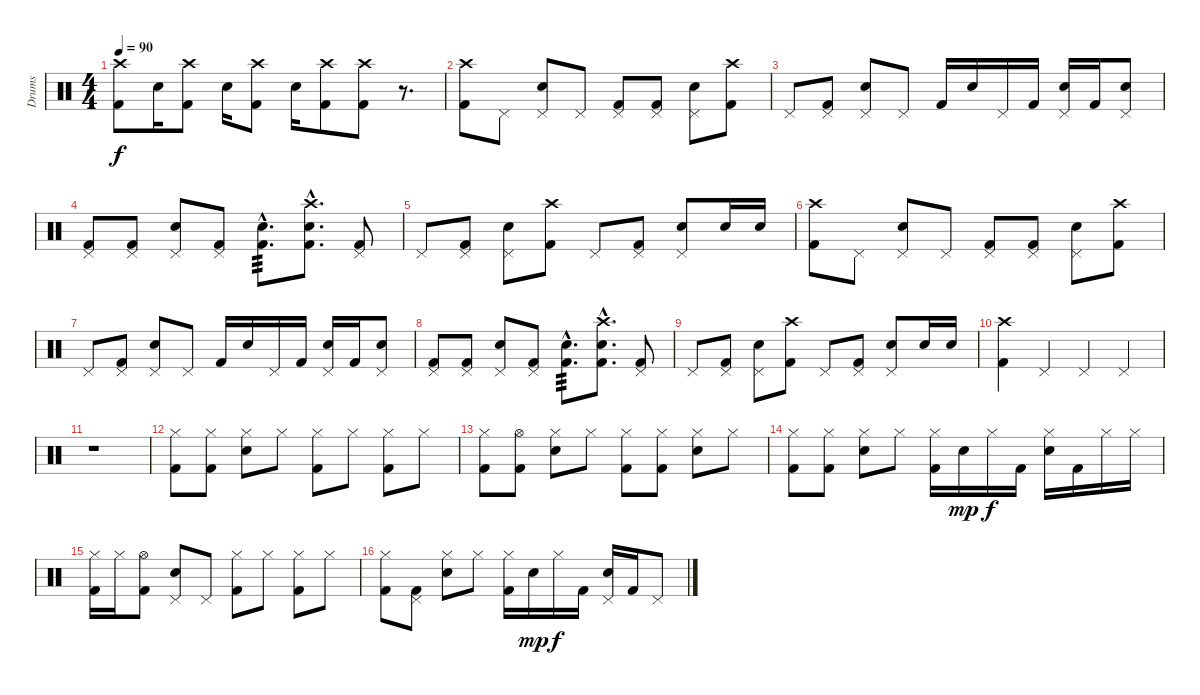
\track ("Drums" "Drums") {instrument percussion}
\staff {score}
\articulation defaults
\ts (4 4)
\tempo 90
\clef neutral
\ks c
("Crash high (hit)" "Kick (hit) 2").8{dy f} "Snare (hit) 2".16 ("Crash high (hit)" "Kick (hit) 2").8 "Snare (hit) 2".16 ("Crash high (hit)" "Kick (hit) 2").8 "Snare (hit) 2".16 ("Crash high (hit)" "Kick (hit) 2").8 ("Crash high (hit)" "Kick (hit) 2").8 r.8{d} |
("Crash high (hit)" "Kick (hit) 2").8 "Pedal Hi-Hat (hit)".8 ("Pedal Hi-Hat (hit)" "Snare (hit) 2").8 "Pedal Hi-Hat (hit)".8 ("Pedal Hi-Hat (hit)" "Kick (hit) 2").8 ("Pedal Hi-Hat (hit)" "Kick (hit) 2").8 ("Pedal Hi-Hat (hit)" "Snare (hit) 2").8 ("Crash high (hit)" "Kick (hit) 2").8 |
"Pedal Hi-Hat (hit)".8 ("Pedal Hi-Hat (hit)" "Kick (hit) 2").8 ("Pedal Hi-Hat (hit)" "Snare (hit) 2").8 "Pedal Hi-Hat (hit)".8 "Kick (hit) 2".16 "Snare (hit) 2".16 "Pedal Hi-Hat (hit)".16 "Kick (hit) 2".16 ("Pedal Hi-Hat (hit)" "Snare (hit) 2").16 "Kick (hit) 2".16 ("Pedal Hi-Hat (hit)" "Snare (hit) 2").8 |
("Pedal Hi-Hat (hit)" "Kick (hit) 2").8 ("Pedal Hi-Hat (hit)" "Kick (hit) 2").8 ("Pedal Hi-Hat (hit)" "Snare (hit) 2").8 ("Pedal Hi-Hat (hit)" "Kick (hit) 2").8 ("Kick (hit) 2"{hac} "Snare (hit) 2"{hac}).8{d tp 3} ("Crash high (hit)"{hac} "Kick (hit) 2"{hac} "Snare (hit) 2"{hac}).8{d} ("Pedal Hi-Hat (hit)" "Kick (hit) 2").8 |
"Pedal Hi-Hat (hit)".8 ("Pedal Hi-Hat (hit)" "Kick (hit) 2").8 ("Pedal Hi-Hat (hit)" "Snare (hit) 2").8 ("Crash high (hit)" "Kick (hit) 2").8 "Pedal Hi-Hat (hit)".8 ("Pedal Hi-Hat (hit)" "Kick (hit) 2").8 ("Pedal Hi-Hat (hit)" "Snare (hit) 2").8 "Snare (hit) 2".16 "Snare (hit) 2".16 |
("Crash high (hit)" "Kick (hit) 2").8 "Pedal Hi-Hat (hit)".8 ("Pedal Hi-Hat (hit)" "Snare (hit) 2").8 "Pedal Hi-Hat (hit)".8 ("Pedal Hi-Hat (hit)" "Kick (hit) 2").8 ("Pedal Hi-Hat (hit)" "Kick (hit) 2").8 ("Pedal Hi-Hat (hit)" "Snare (hit) 2").8 ("Crash high (hit)" "Kick (hit) 2").8 |
"Pedal Hi-Hat (hit)".8 ("Pedal Hi-Hat (hit)" "Kick (hit) 2").8 ("Pedal Hi-Hat (hit)" "Snare (hit) 2").8 "Pedal Hi-Hat (hit)".8 "Kick (hit) 2".16 "Snare (hit) 2".16 "Pedal Hi-Hat (hit)".16 "Kick (hit) 2".16 ("Pedal Hi-Hat (hit)" "Snare (hit) 2").16 "Kick (hit) 2".16 ("Pedal Hi-Hat (hit)" "Snare (hit) 2").8 |
("Pedal Hi-Hat (hit)" "Kick (hit) 2").8 ("Pedal Hi-Hat (hit)" "Kick (hit) 2").8 ("Pedal Hi-Hat (hit)" "Snare (hit) 2").8 ("Pedal Hi-Hat (hit)" "Kick (hit) 2").8 ("Kick (hit) 2"{hac} "Snare (hit) 2"{hac}).8{d tp 3} ("Crash high (hit)"{hac} "Kick (hit) 2"{hac} "Snare (hit) 2"{hac}).8{d} ("Pedal Hi-Hat (hit)" "Kick (hit) 2").8 |
"Pedal Hi-Hat (hit)".8 ("Pedal Hi-Hat (hit)" "Kick (hit) 2").8 ("Pedal Hi-Hat (hit)" "Snare (hit) 2").8 ("Crash high (hit)" "Kick (hit) 2").8 "Pedal Hi-Hat (hit)".8 ("Pedal Hi-Hat (hit)" "Kick (hit) 2").8 ("Pedal Hi-Hat (hit)" "Snare (hit) 2").8 "Snare (hit) 2".16 "Snare (hit) 2".16 |
("Crash high (hit)" "Kick (hit) 2").4 "Pedal Hi-Hat (hit)".4 "Pedal Hi-Hat (hit)".4 "Pedal Hi-Hat (hit)".4 |
r.1 |
("Hi-Hat (closed)" "Kick (hit) 2").8 ("Hi-Hat (closed)" "Kick (hit) 2").8 ("Hi-Hat (closed)" "Snare (hit) 2").8 "Hi-Hat (closed)".8 ("Hi-Hat (closed)" "Kick (hit) 2").8 "Hi-Hat (closed)".8 ("Hi-Hat (closed)" "Kick (hit) 2").8 "Hi-Hat (closed)".8 |
("Hi-Hat (closed)" "Kick (hit) 2").8 ("Hi-Hat (open)" "Kick (hit) 2").8 ("Hi-Hat (closed)" "Snare (hit) 2").8 "Hi-Hat (closed)".8 ("Hi-Hat (closed)" "Kick (hit) 2").8 ("Hi-Hat (closed)" "Kick (hit) 2").8 ("Hi-Hat (closed)" "Snare (hit) 2").8 "Hi-Hat (closed)".8 |
("Hi-Hat (closed)" "Kick (hit) 2").8 ("Hi-Hat (closed)" "Kick (hit) 2").8 ("Hi-Hat (closed)" "Snare (hit) 2").8 "Hi-Hat (closed)".8 ("Hi-Hat (closed)" "Kick (hit) 2").16 "Snare (hit) 2".16{dy mp} "Hi-Hat (closed)".16{dy f} "Kick (hit) 2".16 ("Hi-Hat (closed)" "Snare (hit) 2").16 "Kick (hit) 2".16 "Hi-Hat (closed)".16 "Hi-Hat (closed)".16 |
("Hi-Hat (closed)" "Kick (hit) 2").16 "Hi-Hat (closed)".16 ("Hi-Hat (open)" "Kick (hit) 2").8 ("Pedal Hi-Hat (hit)" "Snare (hit) 2").8 "Pedal Hi-Hat (hit)".8 ("Hi-Hat (closed)" "Kick (hit) 2").8 "Hi-Hat (closed)".8 ("Hi-Hat (closed)" "Kick (hit) 2").8 "Hi-Hat (closed)".8 |
("Hi-Hat (closed)" "Kick (hit) 2").8 ("Pedal Hi-Hat (hit)" "Kick (hit) 2").8 ("Hi-Hat (closed)" "Snare (hit) 2").8 "Hi-Hat (closed)".8 ("Hi-Hat (closed)" "Kick (hit) 2").16 "Snare (hit) 2".16{dy mp} "Hi-Hat (closed)".16{dy f} "Kick (hit) 2".16 ("Pedal Hi-Hat (hit)" "Snare (hit) 2").16 "Kick (hit) 2".16 "Pedal Hi-Hat (hit)".8
